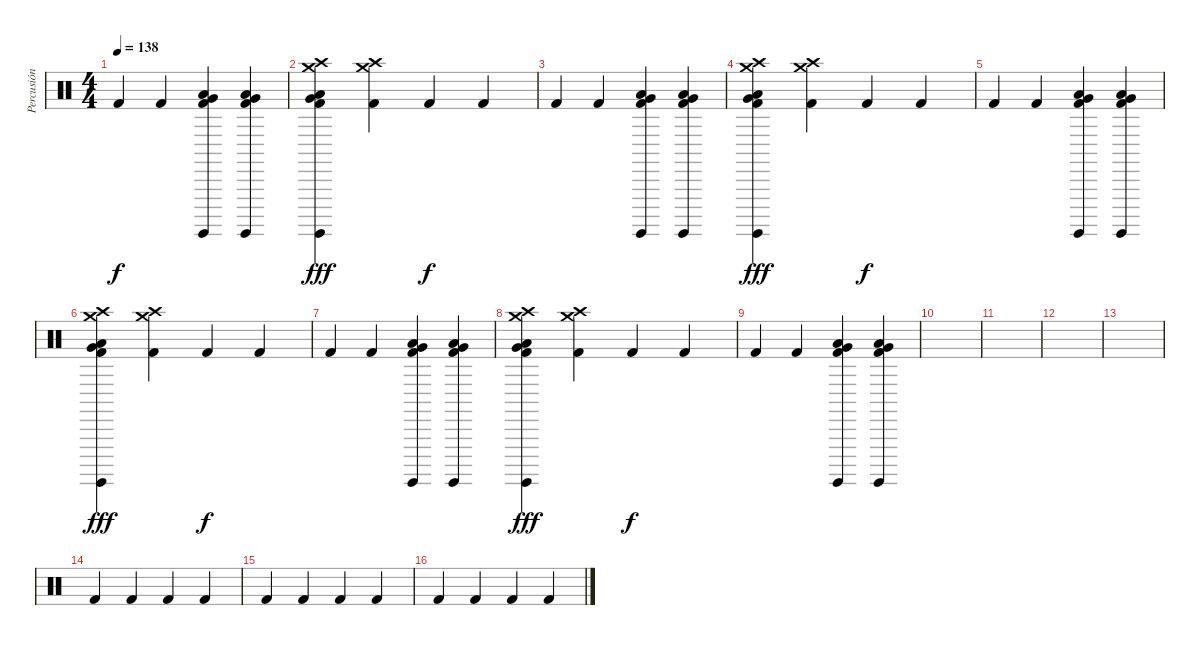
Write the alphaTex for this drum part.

\track ("Percusión" "Percusión") {instrument percussion}
\staff {score}
\articulation defaults
\ts (4 4)
\tempo 138
\clef neutral
\ks c "Kick (hit) 2".4{dy f} "Kick (hit) 2".4
("Low Tom (hit)" "Surdo (hit)" "Very Low Tom (hit)" "Kick (hit) 2").4 ("Low Tom (hit)" "Surdo (hit)" "Very Low Tom (hit)" "Kick (hit) 2").4 |
("Crash medium (hit)" "Crash high (hit)" "Low Tom (hit)" "Surdo (hit)" "Very Low Tom (hit)" "Kick (hit) 2").4{dy fff} ("Crash medium (hit)" "Crash high (hit)" "Kick (hit) 2").4 "Kick (hit) 2".4{dy f} "Kick (hit) 2".4 |
"Kick (hit) 2".4 "Kick (hit) 2".4 ("Low Tom (hit)" "Surdo (hit)" "Very Low Tom (hit)" "Kick (hit) 2").4 ("Low Tom (hit)" "Surdo (hit)" "Very Low Tom (hit)" "Kick (hit) 2").4 |
("Crash medium (hit)" "Crash high (hit)" "Low Tom (hit)" "Surdo (hit)" "Very Low Tom (hit)" "Kick (hit) 2").4{dy fff} ("Crash medium (hit)" "Crash high (hit)" "Kick (hit) 2").4 "Kick (hit) 2".4{dy f} "Kick (hit) 2".4 |
"Kick (hit) 2".4 "Kick (hit) 2".4 ("Low Tom (hit)" "Surdo (hit)" "Very Low Tom (hit)" "Kick (hit) 2").4 ("Low Tom (hit)" "Surdo (hit)" "Very Low Tom (hit)" "Kick (hit) 2").4 |
("Crash medium (hit)" "Crash high (hit)" "Low Tom (hit)" "Surdo (hit)" "Very Low Tom (hit)" "Kick (hit) 2").4{dy fff} ("Crash medium (hit)" "Crash high (hit)" "Kick (hit) 2").4 "Kick (hit) 2".4{dy f} "Kick (hit) 2".4 |
"Kick (hit) 2".4 "Kick (hit) 2".4 ("Low Tom (hit)" "Surdo (hit)" "Very Low Tom (hit)" "Kick (hit) 2").4 ("Low Tom (hit)" "Surdo (hit)" "Very Low Tom (hit)" "Kick (hit) 2").4 |
("Crash medium (hit)" "Crash high (hit)" "Low Tom (hit)" "Surdo (hit)" "Very Low Tom (hit)" "Kick (hit) 2").4{dy fff} ("Crash medium (hit)" "Crash high (hit)" "Kick (hit) 2").4 "Kick (hit) 2".4{dy f} "Kick (hit) 2".4 |
"Kick (hit) 2".4 "Kick (hit) 2".4 ("Low Tom (hit)" "Surdo (hit)" "Very Low Tom (hit)" "Kick (hit) 2").4 ("Low Tom (hit)" "Surdo (hit)" "Very Low Tom (hit)" "Kick (hit) 2").4 |
|
|
|
|
"Kick (hit) 2".4 "Kick (hit) 2".4 "Kick (hit) 2".4 "Kick (hit) 2".4 |
"Kick (hit) 2".4 "Kick (hit) 2".4 "Kick (hit) 2".4 "Kick (hit) 2".4 |
"Kick (hit) 2".4 "Kick (hit) 2".4 "Kick (hit) 2".4 "Kick (hit) 2".4
